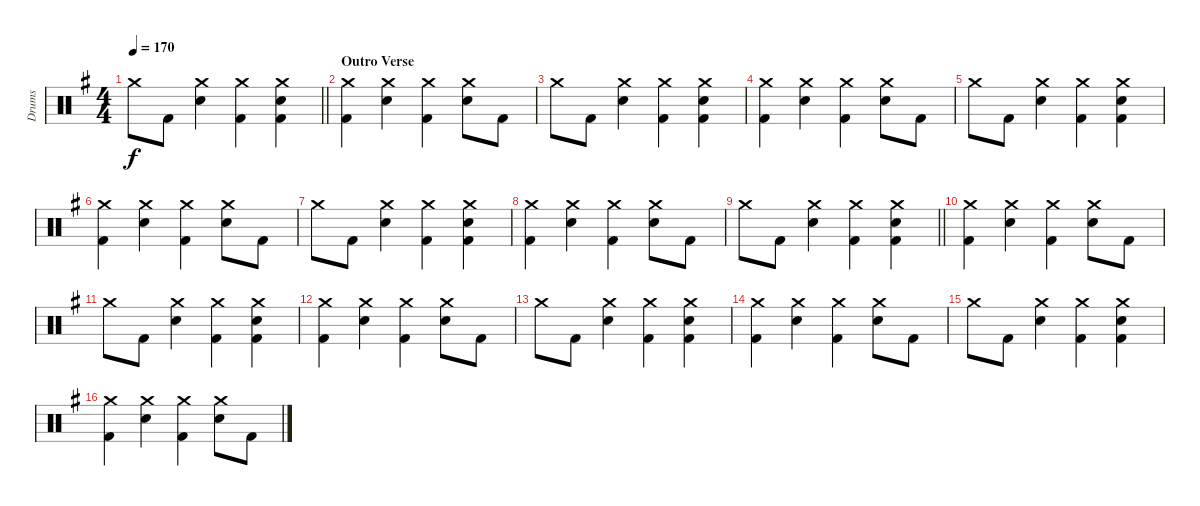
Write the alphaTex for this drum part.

\track ("Drums" "Drums") {instrument percussion}
\staff {score}
\articulation defaults
\ts (4 4)
\tempo 170
\clef neutral
\barLineRight lightlight
\ks eminor "Crash medium (hit)".8{dy f} "Kick (hit) 2".8
("Crash medium (hit)" "Snare (hit) 2").4 ("Crash medium (hit)" "Kick (hit) 2").4 ("Crash medium (hit)" "Snare (hit) 2" "Kick (hit) 2").4 |
\section ("" "Outro Verse")
("Crash medium (hit)" "Kick (hit) 2").4 ("Crash medium (hit)" "Snare (hit) 2").4 ("Crash medium (hit)" "Kick (hit) 2").4 ("Crash medium (hit)" "Snare (hit) 2").8 "Kick (hit) 2".8 |
"Crash medium (hit)".8 "Kick (hit) 2".8 ("Crash medium (hit)" "Snare (hit) 2").4 ("Crash medium (hit)" "Kick (hit) 2").4 ("Crash medium (hit)" "Snare (hit) 2" "Kick (hit) 2").4 |
("Crash medium (hit)" "Kick (hit) 2").4 ("Crash medium (hit)" "Snare (hit) 2").4 ("Crash medium (hit)" "Kick (hit) 2").4 ("Crash medium (hit)" "Snare (hit) 2").8 "Kick (hit) 2".8 |
"Crash medium (hit)".8 "Kick (hit) 2".8 ("Crash medium (hit)" "Snare (hit) 2").4 ("Crash medium (hit)" "Kick (hit) 2").4 ("Crash medium (hit)" "Snare (hit) 2" "Kick (hit) 2").4 |
("Crash medium (hit)" "Kick (hit) 2").4 ("Crash medium (hit)" "Snare (hit) 2").4 ("Crash medium (hit)" "Kick (hit) 2").4 ("Crash medium (hit)" "Snare (hit) 2").8 "Kick (hit) 2".8 |
"Crash medium (hit)".8 "Kick (hit) 2".8 ("Crash medium (hit)" "Snare (hit) 2").4 ("Crash medium (hit)" "Kick (hit) 2").4 ("Crash medium (hit)" "Snare (hit) 2" "Kick (hit) 2").4 |
("Crash medium (hit)" "Kick (hit) 2").4 ("Crash medium (hit)" "Snare (hit) 2").4 ("Crash medium (hit)" "Kick (hit) 2").4 ("Crash medium (hit)" "Snare (hit) 2").8 "Kick (hit) 2".8 |
\barLineRight lightlight "Crash medium (hit)".8 "Kick (hit) 2".8
("Crash medium (hit)" "Snare (hit) 2").4 ("Crash medium (hit)" "Kick (hit) 2").4 ("Crash medium (hit)" "Snare (hit) 2" "Kick (hit) 2").4 |
("Crash medium (hit)" "Kick (hit) 2").4 ("Crash medium (hit)" "Snare (hit) 2").4 ("Crash medium (hit)" "Kick (hit) 2").4 ("Crash medium (hit)" "Snare (hit) 2").8 "Kick (hit) 2".8 |
"Crash medium (hit)".8 "Kick (hit) 2".8 ("Crash medium (hit)" "Snare (hit) 2").4 ("Crash medium (hit)" "Kick (hit) 2").4 ("Crash medium (hit)" "Snare (hit) 2" "Kick (hit) 2").4 |
("Crash medium (hit)" "Kick (hit) 2").4 ("Crash medium (hit)" "Snare (hit) 2").4 ("Crash medium (hit)" "Kick (hit) 2").4 ("Crash medium (hit)" "Snare (hit) 2").8 "Kick (hit) 2".8 |
"Crash medium (hit)".8 "Kick (hit) 2".8 ("Crash medium (hit)" "Snare (hit) 2").4 ("Crash medium (hit)" "Kick (hit) 2").4 ("Crash medium (hit)" "Snare (hit) 2" "Kick (hit) 2").4 |
("Crash medium (hit)" "Kick (hit) 2").4 ("Crash medium (hit)" "Snare (hit) 2").4 ("Crash medium (hit)" "Kick (hit) 2").4 ("Crash medium (hit)" "Snare (hit) 2").8 "Kick (hit) 2".8 |
"Crash medium (hit)".8 "Kick (hit) 2".8 ("Crash medium (hit)" "Snare (hit) 2").4 ("Crash medium (hit)" "Kick (hit) 2").4 ("Crash medium (hit)" "Snare (hit) 2" "Kick (hit) 2").4 |
("Crash medium (hit)" "Kick (hit) 2").4 ("Crash medium (hit)" "Snare (hit) 2").4 ("Crash medium (hit)" "Kick (hit) 2").4 ("Crash medium (hit)" "Snare (hit) 2").8 "Kick (hit) 2".8
